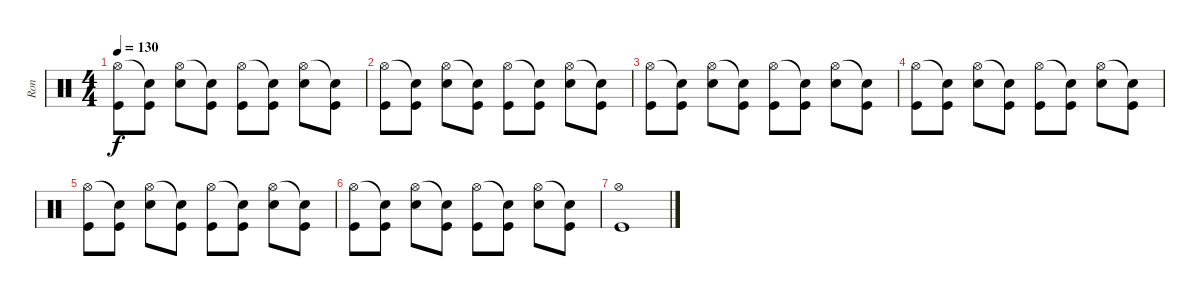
\track ("Ron" "Ron") {instrument percussion}
\staff {score}
\articulation defaults
\ts (4 4)
\tempo 130
\clef neutral
\ks c
("Hi-Hat (open)" "Kick (hit)").8{dy f} ("Snare (hit)"{t} "Kick (hit)").8 ("Hi-Hat (open)" "Electric Snare (hit)").8 ("Snare (hit)"{t} "Kick (hit)").8 ("Hi-Hat (open)" "Kick (hit)").8 ("Snare (hit)"{t} "Kick (hit)").8 ("Hi-Hat (open)" "Electric Snare (hit)").8 ("Snare (hit)"{t} "Kick (hit)").8 |
("Hi-Hat (open)" "Kick (hit)").8 ("Snare (hit)"{t} "Kick (hit)").8 ("Hi-Hat (open)" "Electric Snare (hit)").8 ("Snare (hit)"{t} "Kick (hit)").8 ("Hi-Hat (open)" "Kick (hit)").8 ("Snare (hit)"{t} "Kick (hit)").8 ("Hi-Hat (open)" "Electric Snare (hit)").8 ("Snare (hit)"{t} "Kick (hit)").8 |
("Hi-Hat (open)" "Kick (hit)").8 ("Snare (hit)"{t} "Kick (hit)").8 ("Hi-Hat (open)" "Electric Snare (hit)").8 ("Snare (hit)"{t} "Kick (hit)").8 ("Hi-Hat (open)" "Kick (hit)").8 ("Snare (hit)"{t} "Kick (hit)").8 ("Hi-Hat (open)" "Electric Snare (hit)").8 ("Snare (hit)"{t} "Kick (hit)").8 |
("Hi-Hat (open)" "Kick (hit)").8 ("Snare (hit)"{t} "Kick (hit)").8 ("Hi-Hat (open)" "Electric Snare (hit)").8 ("Snare (hit)"{t} "Kick (hit)").8 ("Hi-Hat (open)" "Kick (hit)").8 ("Snare (hit)"{t} "Kick (hit)").8 ("Hi-Hat (open)" "Electric Snare (hit)").8 ("Snare (hit)"{t} "Kick (hit)").8 |
("Hi-Hat (open)" "Kick (hit)").8 ("Snare (hit)"{t} "Kick (hit)").8 ("Hi-Hat (open)" "Electric Snare (hit)").8 ("Snare (hit)"{t} "Kick (hit)").8 ("Hi-Hat (open)" "Kick (hit)").8 ("Snare (hit)"{t} "Kick (hit)").8 ("Hi-Hat (open)" "Electric Snare (hit)").8 ("Snare (hit)"{t} "Kick (hit)").8 |
("Hi-Hat (open)" "Kick (hit)").8 ("Snare (hit)"{t} "Kick (hit)").8 ("Hi-Hat (open)" "Electric Snare (hit)").8 ("Snare (hit)"{t} "Kick (hit)").8 ("Hi-Hat (open)" "Kick (hit)").8 ("Snare (hit)"{t} "Kick (hit)").8 ("Hi-Hat (open)" "Electric Snare (hit)").8 ("Snare (hit)"{t} "Kick (hit)").8 |
("Hi-Hat (open)" "Kick (hit)").1
